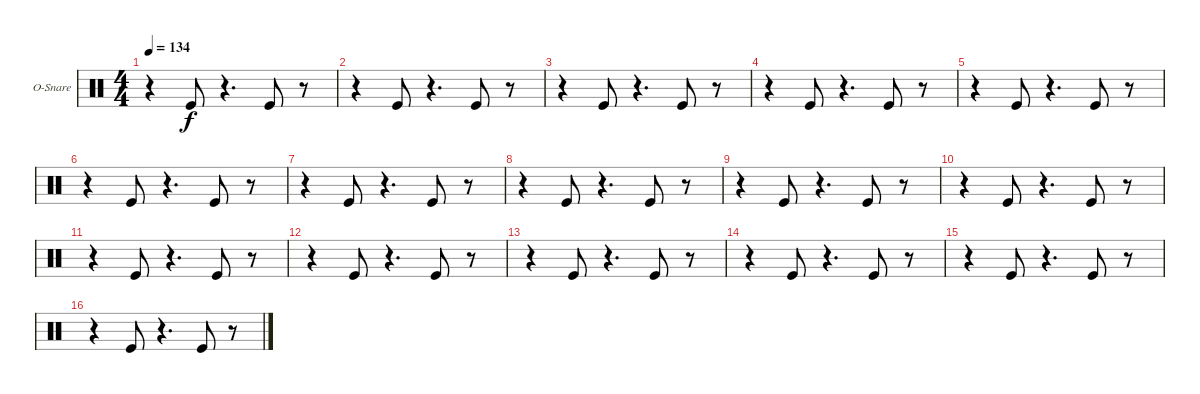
\bracketExtendMode groupsimilarinstruments
\firstSystemTrackNameOrientation horizontal
\otherSystemsTrackNameOrientation horizontal
\track ("Open Snare" "O-Snare") {instrument percussion}
\staff {score}
\articulation defaults
\ts (4 4)
\scale
0.254768
\tempo 134
\accidentals auto
\clef neutral
\ottava regular
\simile none
\scale
0.25
\ks c
r.4{dy f} "Kick (hit)".8 r.4{d} "Kick (hit)".8 r.8 |
\scale
0.245232
\scale
0.25 r.4 "Kick (hit)".8 r.4{d} "Kick (hit)".8 r.8 |
\scale
0.254768
\scale
0.25 r.4 "Kick (hit)".8 r.4{d} "Kick (hit)".8 r.8 |
\scale
0.245232
\scale
0.25 r.4 "Kick (hit)".8 r.4{d} "Kick (hit)".8 r.8 |
\scale
0.254768
\scale
0.25 r.4 "Kick (hit)".8 r.4{d} "Kick (hit)".8 r.8 |
\scale
0.245232
\scale
0.25 r.4 "Kick (hit)".8 r.4{d} "Kick (hit)".8 r.8 |
\scale
0.254768
\scale
0.25 r.4 "Kick (hit)".8 r.4{d} "Kick (hit)".8 r.8 |
\scale
0.245232
\scale
0.25 r.4 "Kick (hit)".8 r.4{d} "Kick (hit)".8 r.8 |
\scale
0.254768
\scale
0.25 r.4 "Kick (hit)".8 r.4{d} "Kick (hit)".8 r.8 |
\scale
0.245232
\scale
0.25 r.4 "Kick (hit)".8 r.4{d} "Kick (hit)".8 r.8 |
\scale
0.25 r.4 "Kick (hit)".8 r.4{d} "Kick (hit)".8 r.8 |
r.4 "Kick (hit)".8 r.4{d} "Kick (hit)".8 r.8 |
r.4 "Kick (hit)".8 r.4{d} "Kick (hit)".8 r.8 |
r.4 "Kick (hit)".8 r.4{d} "Kick (hit)".8 r.8 |
r.4 "Kick (hit)".8 r.4{d} "Kick (hit)".8 r.8 |
r.4 "Kick (hit)".8 r.4{d} "Kick (hit)".8 r.8
